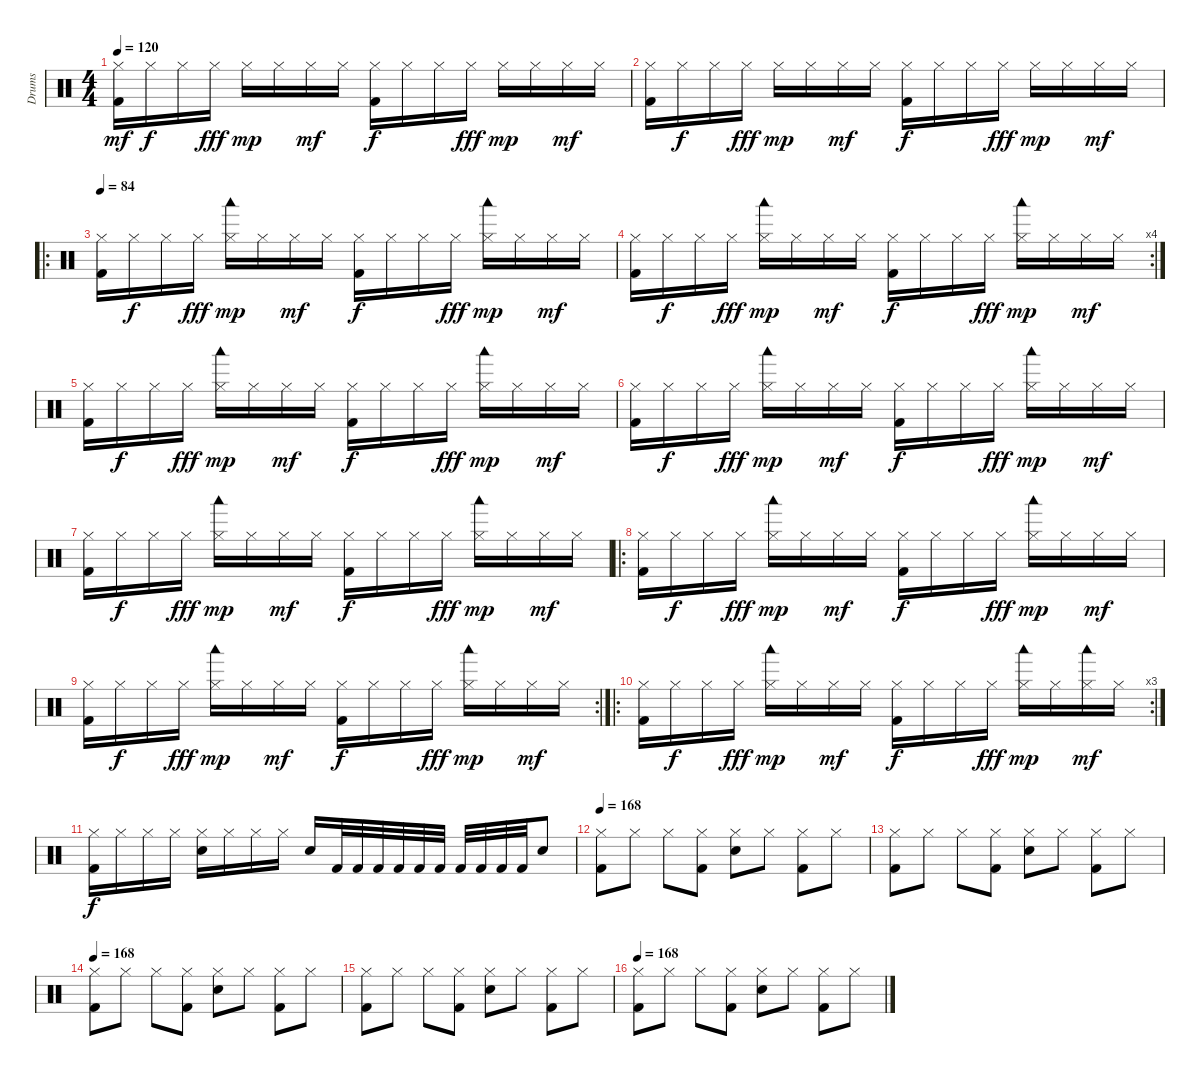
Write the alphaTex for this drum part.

\track ("Drums" "Drums") {instrument percussion}
\staff {score}
\articulation defaults
\ts (4 4)
\tempo 120
\tempo 84
\tempo 120
\clef neutral
\ks c
("Kick (hit) 2" "Hi-Hat (closed)").16{dy mf} "Hi-Hat (closed)".16{dy f} "Hi-Hat (closed)".16 "Hi-Hat (closed)".16{dy fff} "Hi-Hat (closed)".16{dy mp} "Hi-Hat (closed)".16 "Hi-Hat (closed)".16{dy mf} "Hi-Hat (closed)".16 ("Kick (hit) 2" "Hi-Hat (closed)").16{dy f} "Hi-Hat (closed)".16 "Hi-Hat (closed)".16 "Hi-Hat (closed)".16{dy fff} "Hi-Hat (closed)".16{dy mp} "Hi-Hat (closed)".16 "Hi-Hat (closed)".16{dy mf} "Hi-Hat (closed)".16 |
("Kick (hit) 2" "Hi-Hat (closed)").16 "Hi-Hat (closed)".16{dy f} "Hi-Hat (closed)".16 "Hi-Hat (closed)".16{dy fff} "Hi-Hat (closed)".16{dy mp} "Hi-Hat (closed)".16 "Hi-Hat (closed)".16{dy mf} "Hi-Hat (closed)".16 ("Kick (hit) 2" "Hi-Hat (closed)").16{dy f} "Hi-Hat (closed)".16 "Hi-Hat (closed)".16 "Hi-Hat (closed)".16{dy fff} "Hi-Hat (closed)".16{dy mp} "Hi-Hat (closed)".16 "Hi-Hat (closed)".16{dy mf} "Hi-Hat (closed)".16 |
\ro
\tempo 84
("Kick (hit) 2" "Hi-Hat (closed)").16 "Hi-Hat (closed)".16{dy f} "Hi-Hat (closed)".16 "Hi-Hat (closed)".16{dy fff} ("Woodblock low (hit)" "Hi-Hat (closed)").16{dy mp} "Hi-Hat (closed)".16 "Hi-Hat (closed)".16{dy mf} "Hi-Hat (closed)".16 ("Kick (hit) 2" "Hi-Hat (closed)").16{dy f} "Hi-Hat (closed)".16 "Hi-Hat (closed)".16 "Hi-Hat (closed)".16{dy fff} ("Woodblock low (hit)" "Hi-Hat (closed)").16{dy mp} "Hi-Hat (closed)".16 "Hi-Hat (closed)".16{dy mf} "Hi-Hat (closed)".16 |
\rc 4
("Kick (hit) 2" "Hi-Hat (closed)").16 "Hi-Hat (closed)".16{dy f} "Hi-Hat (closed)".16 "Hi-Hat (closed)".16{dy fff} ("Woodblock low (hit)" "Hi-Hat (closed)").16{dy mp} "Hi-Hat (closed)".16 "Hi-Hat (closed)".16{dy mf} "Hi-Hat (closed)".16 ("Kick (hit) 2" "Hi-Hat (closed)").16{dy f} "Hi-Hat (closed)".16 "Hi-Hat (closed)".16 "Hi-Hat (closed)".16{dy fff} ("Woodblock low (hit)" "Hi-Hat (closed)").16{dy mp} "Hi-Hat (closed)".16 "Hi-Hat (closed)".16{dy mf} "Hi-Hat (closed)".16 |
("Kick (hit) 2" "Hi-Hat (closed)").16 "Hi-Hat (closed)".16{dy f} "Hi-Hat (closed)".16 "Hi-Hat (closed)".16{dy fff} ("Woodblock low (hit)" "Hi-Hat (closed)").16{dy mp} "Hi-Hat (closed)".16 "Hi-Hat (closed)".16{dy mf} "Hi-Hat (closed)".16 ("Kick (hit) 2" "Hi-Hat (closed)").16{dy f} "Hi-Hat (closed)".16 "Hi-Hat (closed)".16 "Hi-Hat (closed)".16{dy fff} ("Woodblock low (hit)" "Hi-Hat (closed)").16{dy mp} "Hi-Hat (closed)".16 "Hi-Hat (closed)".16{dy mf} "Hi-Hat (closed)".16 |
("Kick (hit) 2" "Hi-Hat (closed)").16 "Hi-Hat (closed)".16{dy f} "Hi-Hat (closed)".16 "Hi-Hat (closed)".16{dy fff} ("Woodblock low (hit)" "Hi-Hat (closed)").16{dy mp} "Hi-Hat (closed)".16 "Hi-Hat (closed)".16{dy mf} "Hi-Hat (closed)".16 ("Kick (hit) 2" "Hi-Hat (closed)").16{dy f} "Hi-Hat (closed)".16 "Hi-Hat (closed)".16 "Hi-Hat (closed)".16{dy fff} ("Woodblock low (hit)" "Hi-Hat (closed)").16{dy mp} "Hi-Hat (closed)".16 "Hi-Hat (closed)".16{dy mf} "Hi-Hat (closed)".16 |
("Kick (hit) 2" "Hi-Hat (closed)").16 "Hi-Hat (closed)".16{dy f} "Hi-Hat (closed)".16 "Hi-Hat (closed)".16{dy fff} ("Woodblock low (hit)" "Hi-Hat (closed)").16{dy mp} "Hi-Hat (closed)".16 "Hi-Hat (closed)".16{dy mf} "Hi-Hat (closed)".16 ("Kick (hit) 2" "Hi-Hat (closed)").16{dy f} "Hi-Hat (closed)".16 "Hi-Hat (closed)".16 "Hi-Hat (closed)".16{dy fff} ("Woodblock low (hit)" "Hi-Hat (closed)").16{dy mp} "Hi-Hat (closed)".16 "Hi-Hat (closed)".16{dy mf} "Hi-Hat (closed)".16 |
\ro
("Kick (hit) 2" "Hi-Hat (closed)").16 "Hi-Hat (closed)".16{dy f} "Hi-Hat (closed)".16 "Hi-Hat (closed)".16{dy fff} ("Woodblock low (hit)" "Hi-Hat (closed)").16{dy mp} "Hi-Hat (closed)".16 "Hi-Hat (closed)".16{dy mf} "Hi-Hat (closed)".16 ("Kick (hit) 2" "Hi-Hat (closed)").16{dy f} "Hi-Hat (closed)".16 "Hi-Hat (closed)".16 "Hi-Hat (closed)".16{dy fff} ("Woodblock low (hit)" "Hi-Hat (closed)").16{dy mp} "Hi-Hat (closed)".16 "Hi-Hat (closed)".16{dy mf} "Hi-Hat (closed)".16 |
\rc 2
("Kick (hit) 2" "Hi-Hat (closed)").16 "Hi-Hat (closed)".16{dy f} "Hi-Hat (closed)".16 "Hi-Hat (closed)".16{dy fff} ("Woodblock low (hit)" "Hi-Hat (closed)").16{dy mp} "Hi-Hat (closed)".16 "Hi-Hat (closed)".16{dy mf} "Hi-Hat (closed)".16 ("Kick (hit) 2" "Hi-Hat (closed)").16{dy f} "Hi-Hat (closed)".16 "Hi-Hat (closed)".16 "Hi-Hat (closed)".16{dy fff} ("Woodblock low (hit)" "Hi-Hat (closed)").16{dy mp} "Hi-Hat (closed)".16 "Hi-Hat (closed)".16{dy mf} "Hi-Hat (closed)".16 |
\ro
\rc 3
("Kick (hit) 2" "Hi-Hat (closed)").16 "Hi-Hat (closed)".16{dy f} "Hi-Hat (closed)".16 "Hi-Hat (closed)".16{dy fff} ("Woodblock low (hit)" "Hi-Hat (closed)").16{dy mp} "Hi-Hat (closed)".16 "Hi-Hat (closed)".16{dy mf} "Hi-Hat (closed)".16 ("Kick (hit) 2" "Hi-Hat (closed)").16{dy f} "Hi-Hat (closed)".16 "Hi-Hat (closed)".16 "Hi-Hat (closed)".16{dy fff} ("Woodblock low (hit)" "Hi-Hat (closed)").16{dy mp} "Hi-Hat (closed)".16 ("Woodblock low (hit)" "Hi-Hat (closed)").16{dy mf} "Hi-Hat (closed)".16 |
("Kick (hit) 2" "Hi-Hat (closed)").16{dy f} "Hi-Hat (closed)".16 "Hi-Hat (closed)".16 "Hi-Hat (closed)".16 ("Electric Snare (hit)" "Hi-Hat (closed)").16 "Hi-Hat (closed)".16 "Hi-Hat (closed)".16 "Hi-Hat (closed)".16 "Electric Snare (hit)".16 "Kick (hit) 2".32 "Kick (hit) 2".32 "Kick (hit) 2".32 "Kick (hit) 2".32 "Kick (hit) 2".32 "Kick (hit) 2".32 "Kick (hit) 2".32 "Kick (hit) 2".32 "Kick (hit) 2".32 "Kick (hit) 2".32 "Snare (hit) 2".8 |
\tempo 168
("Kick (hit) 2" "Hi-Hat (closed)").8 "Hi-Hat (closed)".8 "Hi-Hat (closed)".8 ("Kick (hit) 2" "Hi-Hat (closed)").8 ("Snare (hit) 2" "Hi-Hat (closed)").8 "Hi-Hat (closed)".8 ("Kick (hit) 2" "Hi-Hat (closed)").8 "Hi-Hat (closed)".8 |
("Kick (hit) 2" "Hi-Hat (closed)").8 "Hi-Hat (closed)".8 "Hi-Hat (closed)".8 ("Kick (hit) 2" "Hi-Hat (closed)").8 ("Snare (hit) 2" "Hi-Hat (closed)").8 "Hi-Hat (closed)".8 ("Kick (hit) 2" "Hi-Hat (closed)").8 "Hi-Hat (closed)".8 |
\tempo 168
("Kick (hit) 2" "Hi-Hat (closed)").8 "Hi-Hat (closed)".8 "Hi-Hat (closed)".8 ("Kick (hit) 2" "Hi-Hat (closed)").8 ("Snare (hit) 2" "Hi-Hat (closed)").8 "Hi-Hat (closed)".8 ("Kick (hit) 2" "Hi-Hat (closed)").8 "Hi-Hat (closed)".8 |
("Kick (hit) 2" "Hi-Hat (closed)").8 "Hi-Hat (closed)".8 "Hi-Hat (closed)".8 ("Kick (hit) 2" "Hi-Hat (closed)").8 ("Snare (hit) 2" "Hi-Hat (closed)").8 "Hi-Hat (closed)".8 ("Kick (hit) 2" "Hi-Hat (closed)").8 "Hi-Hat (closed)".8 |
\tempo 168
("Kick (hit) 2" "Hi-Hat (closed)").8 "Hi-Hat (closed)".8 "Hi-Hat (closed)".8 ("Kick (hit) 2" "Hi-Hat (closed)").8 ("Snare (hit) 2" "Hi-Hat (closed)").8 "Hi-Hat (closed)".8 ("Kick (hit) 2" "Hi-Hat (closed)").8 "Hi-Hat (closed)".8
